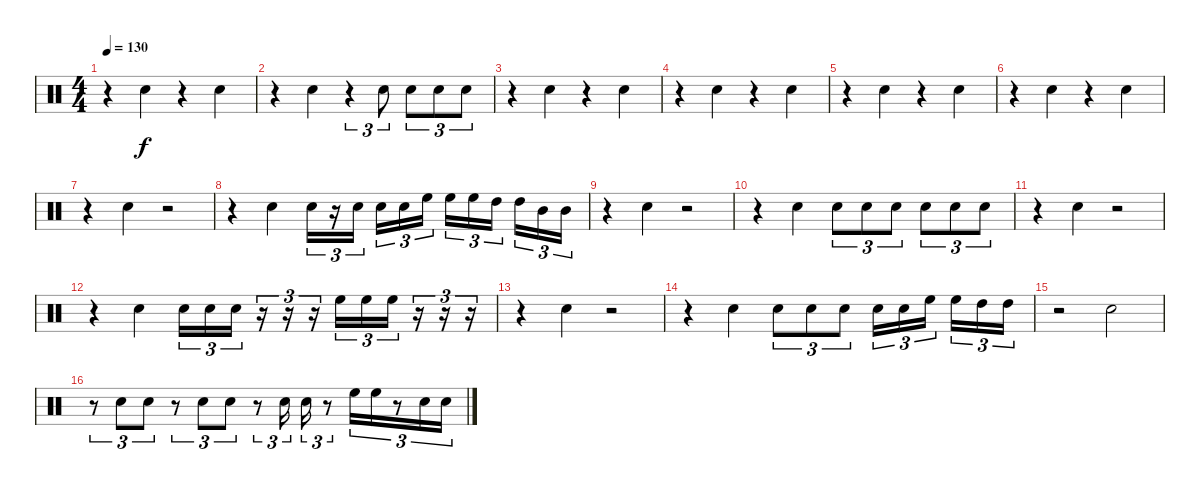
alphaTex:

\track "" {instrument percussion}
\staff {score}
\articulation defaults
\ts (4 4)
\tempo 130
\clef neutral
\ks c
r.4{dy f} "Electric Snare (hit)".4 r.4 "Electric Snare (hit)".4 |
r.4 "Electric Snare (hit)".4 r.4{tu (3 2)} "Electric Snare (hit)".8{tu (3 2)} "Electric Snare (hit)".8{tu (3 2)} "Electric Snare (hit)".8{tu (3 2)} "Electric Snare (hit)".8{tu (3 2)} |
r.4 "Electric Snare (hit)".4 r.4 "Electric Snare (hit)".4 |
r.4 "Electric Snare (hit)".4 r.4 "Electric Snare (hit)".4 |
r.4 "Electric Snare (hit)".4 r.4 "Electric Snare (hit)".4 |
r.4 "Electric Snare (hit)".4 r.4 "Electric Snare (hit)".4 |
r.4 "Electric Snare (hit)".4 r.2 |
r.4 "Electric Snare (hit)".4 "Electric Snare (hit)".16{tu (3 2)} r.16{tu (3 2)} "Electric Snare (hit)".16{tu (3 2)} "Electric Snare (hit)".16{tu (3 2)} "Electric Snare (hit)".16{tu (3 2)} "High Floor Tom (hit)".16{tu (3 2)} "High Floor Tom (hit)".16{tu (3 2)} "High Floor Tom (hit)".16{tu (3 2)} "High Tom (hit)".16{tu (3 2)} "High Tom (hit)".16{tu (3 2)} "Mid Tom (hit)".16{tu (3 2)} "Mid Tom (hit)".16{tu (3 2)} |
r.4 "Electric Snare (hit)".4 r.2 |
r.4 "Electric Snare (hit)".4 "Electric Snare (hit)".8{tu (3 2)} "Electric Snare (hit)".8{tu (3 2)} "Electric Snare (hit)".8{tu (3 2)} "Electric Snare (hit)".8{tu (3 2)} "Electric Snare (hit)".8{tu (3 2)} "Electric Snare (hit)".8{tu (3 2)} |
r.4 "Electric Snare (hit)".4 r.2 |
r.4 "Electric Snare (hit)".4 "Electric Snare (hit)".16{tu (3 2)} "Electric Snare (hit)".16{tu (3 2)} "Electric Snare (hit)".16{tu (3 2)} r.16{tu (3 2)} r.16{tu (3 2)} r.16{tu (3 2)} "High Floor Tom (hit)".16{tu (3 2)} "High Floor Tom (hit)".16{tu (3 2)} "High Floor Tom (hit)".16{tu (3 2)} r.16{tu (3 2)} r.16{tu (3 2)} r.16{tu (3 2)} |
r.4 "Electric Snare (hit)".4 r.2 |
r.4 "Electric Snare (hit)".4 "Electric Snare (hit)".8{tu (3 2)} "Electric Snare (hit)".8{tu (3 2)} "Electric Snare (hit)".8{tu (3 2)} "Electric Snare (hit)".16{tu (3 2)} "Electric Snare (hit)".16{tu (3 2)} "High Floor Tom (hit)".16{tu (3 2)} "High Floor Tom (hit)".16{tu (3 2)} "High Tom (hit)".16{tu (3 2)} "High Tom (hit)".16{tu (3 2)} |
r.2 "Electric Snare (hit)".2 |
r.8{tu (3 2)} "Electric Snare (hit)".8{tu (3 2)} "Electric Snare (hit)".8{tu (3 2)} r.8{tu (3 2)} "Electric Snare (hit)".8{tu (3 2)} "Electric Snare (hit)".8{tu (3 2)} r.8{tu (3 2)} "Electric Snare (hit)".16{tu (3 2)} "Electric Snare (hit)".16{tu (3 2)} r.8{tu (3 2)} "High Floor Tom (hit)".16{tu (3 2)} "High Floor Tom (hit)".16{tu (3 2)} r.8{tu (3 2)} "Electric Snare (hit)".16{tu (3 2)} "Electric Snare (hit)".16{tu (3 2)}
